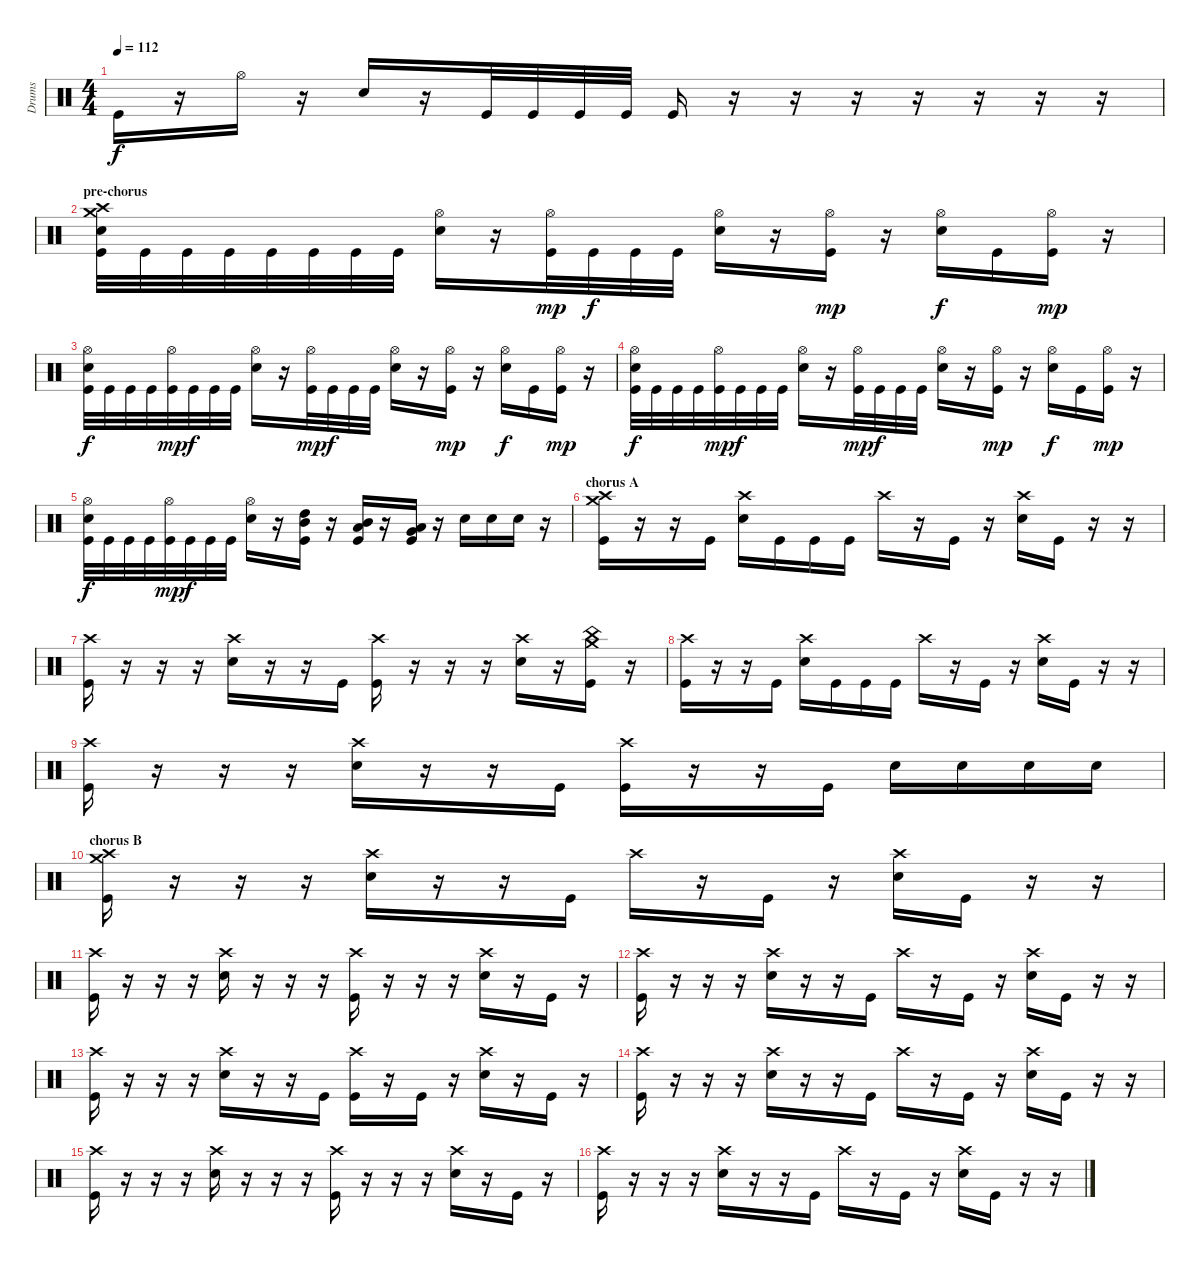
\track ("Drums" "Drums") {instrument percussion}
\staff {score}
\articulation defaults
\ts (4 4)
\tempo 112
\clef neutral
\ks c "Kick (hit)".16{dy f}
r.16 "Hi-Hat (open)".16 r.16 "Snare (hit) 2".16 r.16 "Kick (hit)".32 "Kick (hit)".32 "Kick (hit)".32 "Kick (hit)".32 "Kick (hit)".16 r.16 r.16 r.16 r.16 r.16 r.16 r.16 |
\section ("" "pre-chorus")
("Crash high (hit)" "Crash medium (hit)" "Snare (hit) 2" "Kick (hit)").32 "Kick (hit)".32 "Kick (hit)".32 "Kick (hit)".32 "Kick (hit)".32 "Kick (hit)".32 "Kick (hit)".32 "Kick (hit)".32 ("Hi-Hat (open)" "Snare (hit) 2").16 r.16 ("Hi-Hat (open)" "Kick (hit)").32{dy mp} "Kick (hit)".32{dy f} "Kick (hit)".32 "Kick (hit)".32 ("Hi-Hat (open)" "Snare (hit) 2").16 r.16 ("Hi-Hat (open)" "Kick (hit)").16{dy mp} r.16 ("Hi-Hat (open)" "Snare (hit) 2").16{dy f} "Kick (hit)".16 ("Hi-Hat (open)" "Kick (hit)").16{dy mp} r.16 |
("Hi-Hat (open)" "Snare (hit) 2" "Kick (hit)").32{dy f} "Kick (hit)".32 "Kick (hit)".32 "Kick (hit)".32 ("Hi-Hat (open)" "Kick (hit)").32{dy mp} "Kick (hit)".32{dy f} "Kick (hit)".32 "Kick (hit)".32 ("Hi-Hat (open)" "Snare (hit) 2").16 r.16 ("Hi-Hat (open)" "Kick (hit)").32{dy mp} "Kick (hit)".32{dy f} "Kick (hit)".32 "Kick (hit)".32 ("Hi-Hat (open)" "Snare (hit) 2").16 r.16 ("Hi-Hat (open)" "Kick (hit)").16{dy mp} r.16 ("Hi-Hat (open)" "Snare (hit) 2").16{dy f} "Kick (hit)".16 ("Hi-Hat (open)" "Kick (hit)").16{dy mp} r.16 |
("Hi-Hat (open)" "Snare (hit) 2" "Kick (hit)").32{dy f} "Kick (hit)".32 "Kick (hit)".32 "Kick (hit)".32 ("Hi-Hat (open)" "Kick (hit)").32{dy mp} "Kick (hit)".32{dy f} "Kick (hit)".32 "Kick (hit)".32 ("Hi-Hat (open)" "Snare (hit) 2").16 r.16 ("Hi-Hat (open)" "Kick (hit)").32{dy mp} "Kick (hit)".32{dy f} "Kick (hit)".32 "Kick (hit)".32 ("Hi-Hat (open)" "Snare (hit) 2").16 r.16 ("Hi-Hat (open)" "Kick (hit)").16{dy mp} r.16 ("Hi-Hat (open)" "Snare (hit) 2").16{dy f} "Kick (hit)".16 ("Hi-Hat (open)" "Kick (hit)").16{dy mp} r.16 |
("Hi-Hat (open)" "Snare (hit) 2" "Kick (hit)").32{dy f} "Kick (hit)".32 "Kick (hit)".32 "Kick (hit)".32 ("Hi-Hat (open)" "Kick (hit)").32{dy mp} "Kick (hit)".32{dy f} "Kick (hit)".32 "Kick (hit)".32 ("Hi-Hat (open)" "Snare (hit) 2").16 r.16 ("High Tom (hit)" "Mid Tom (hit)" "Kick (hit)").16{bu 60} r.16 ("Mid Tom (hit)" "Low Tom (hit)" "Kick (hit)").16{bu 60} r.16 ("Low Tom (hit)" "Very Low Tom (hit)" "Kick (hit)").16{bu 60} r.16 "Snare (hit) 2".16 "Snare (hit) 2".16 "Snare (hit) 2".16 r.16 |
\section ("" "chorus A")
("Crash high (hit)" "Crash medium (hit)" "Kick (hit)").16 r.16 r.16 "Kick (hit)".16 ("Crash high (hit)" "Snare (hit) 2").16 "Kick (hit)".16 "Kick (hit)".16 "Kick (hit)".16 "Crash high (hit)".16 r.16 "Kick (hit)".16 r.16 ("Crash high (hit)" "Snare (hit) 2").16 "Kick (hit)".16 r.16 r.16 |
("Crash high (hit)" "Kick (hit)").16 r.16 r.16 r.16 ("Crash high (hit)" "Snare (hit) 2").16 r.16 r.16 "Kick (hit)".16 ("Crash high (hit)" "Kick (hit)").16 r.16 r.16 r.16 ("Crash high (hit)" "Snare (hit) 2").16 r.16 ("Crash medium (hit)" "China (hit)" "Kick (hit)").16 r.16 |
("Crash high (hit)" "Kick (hit)").16 r.16 r.16 "Kick (hit)".16 ("Crash high (hit)" "Snare (hit) 2").16 "Kick (hit)".16 "Kick (hit)".16 "Kick (hit)".16 "Crash high (hit)".16 r.16 "Kick (hit)".16 r.16 ("Crash high (hit)" "Snare (hit) 2").16 "Kick (hit)".16 r.16 r.16 |
("Crash high (hit)" "Kick (hit)").16 r.16 r.16 r.16 ("Crash high (hit)" "Snare (hit) 2").16 r.16 r.16 "Kick (hit)".16 ("Crash high (hit)" "Kick (hit)").16 r.16 r.16 "Kick (hit)".16 "Snare (hit) 2".16 "Snare (hit) 2".16 "Snare (hit) 2".16 "Snare (hit) 2".16 |
\section ("" "chorus B")
("Crash high (hit)" "Crash medium (hit)" "Kick (hit)").16 r.16 r.16 r.16 ("Crash high (hit)" "Snare (hit) 2").16 r.16 r.16 "Kick (hit)".16 "Crash high (hit)".16 r.16 "Kick (hit)".16 r.16 ("Crash high (hit)" "Snare (hit) 2").16 "Kick (hit)".16 r.16 r.16 |
("Crash high (hit)" "Kick (hit)").16 r.16 r.16 r.16 ("Crash high (hit)" "Snare (hit) 2").16 r.16 r.16 r.16 ("Crash high (hit)" "Kick (hit)").16 r.16 r.16 r.16 ("Crash high (hit)" "Snare (hit) 2").16 r.16 "Kick (hit)".16 r.16 |
("Crash high (hit)" "Kick (hit)").16 r.16 r.16 r.16 ("Crash high (hit)" "Snare (hit) 2").16 r.16 r.16 "Kick (hit)".16 "Crash high (hit)".16 r.16 "Kick (hit)".16 r.16 ("Crash high (hit)" "Snare (hit) 2").16 "Kick (hit)".16 r.16 r.16 |
("Crash high (hit)" "Kick (hit)").16 r.16 r.16 r.16 ("Crash high (hit)" "Snare (hit) 2").16 r.16 r.16 "Kick (hit)".16 ("Crash high (hit)" "Kick (hit)").16 r.16 "Kick (hit)".16 r.16 ("Crash high (hit)" "Snare (hit) 2").16 r.16 "Kick (hit)".16 r.16 |
("Crash high (hit)" "Kick (hit)").16 r.16 r.16 r.16 ("Crash high (hit)" "Snare (hit) 2").16 r.16 r.16 "Kick (hit)".16 "Crash high (hit)".16 r.16 "Kick (hit)".16 r.16 ("Crash high (hit)" "Snare (hit) 2").16 "Kick (hit)".16 r.16 r.16 |
("Crash high (hit)" "Kick (hit)").16 r.16 r.16 r.16 ("Crash high (hit)" "Snare (hit) 2").16 r.16 r.16 r.16 ("Crash high (hit)" "Kick (hit)").16 r.16 r.16 r.16 ("Crash high (hit)" "Snare (hit) 2").16 r.16 "Kick (hit)".16 r.16 |
("Crash high (hit)" "Kick (hit)").16 r.16 r.16 r.16 ("Crash high (hit)" "Snare (hit) 2").16 r.16 r.16 "Kick (hit)".16 "Crash high (hit)".16 r.16 "Kick (hit)".16 r.16 ("Crash high (hit)" "Snare (hit) 2").16 "Kick (hit)".16 r.16 r.16
